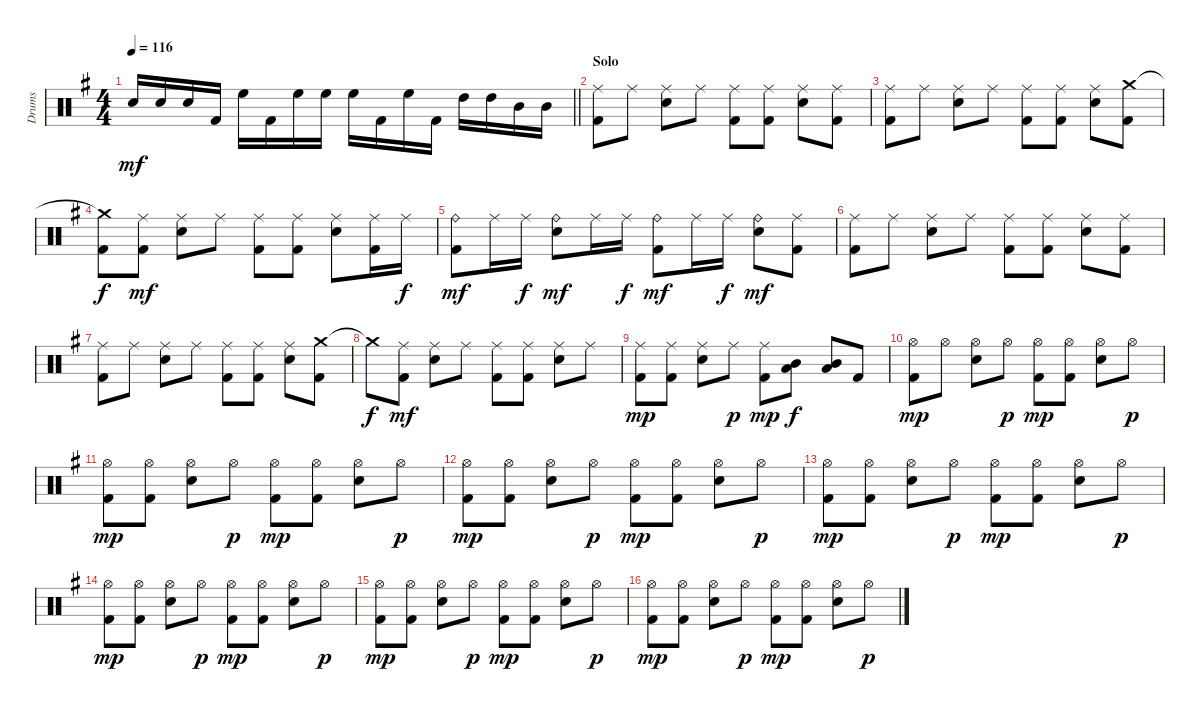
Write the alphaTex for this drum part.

\track ("Drums" "Drums") {instrument percussion}
\staff {score}
\articulation defaults
\ts (4 4)
\tempo 116
\clef neutral
\barLineRight lightlight
\ks g "Electric Snare (hit)".16{dy mf} "Electric Snare (hit)".16 "Electric Snare (hit)".16 "Kick (hit) 2".16 "High Floor Tom (hit)".16 "Kick (hit) 2".16 "High Floor Tom (hit)".16 "High Floor Tom (hit)".16 "High Floor Tom (hit)".16 "Kick (hit) 2".16 "High Floor Tom (hit)".16 "Kick (hit) 2".16 "High Tom (hit)".16 "High Tom (hit)".16 "Mid Tom (hit)".16 "Mid Tom (hit)".16
|
\section ("" "Solo")
("Ride (middle)" "Kick (hit) 2").8 "Ride (middle)".8 ("Ride (middle)" "Electric Snare (hit)").8 "Ride (middle)".8 ("Ride (middle)" "Kick (hit) 2").8 ("Ride (middle)" "Kick (hit) 2").8 ("Ride (middle)" "Electric Snare (hit)").8 ("Ride (middle)" "Kick (hit) 2").8 |
("Ride (middle)" "Kick (hit) 2").8 "Ride (middle)".8 ("Ride (middle)" "Electric Snare (hit)").8 "Ride (middle)".8 ("Ride (middle)" "Kick (hit) 2").8 ("Ride (middle)" "Kick (hit) 2").8 ("Ride (middle)" "Electric Snare (hit)").8 ("Crash medium (hit)" "Kick (hit) 2").8 |
("Crash medium (hit)"{t} "Kick (hit) 2").8{dy f} ("Ride (middle)" "Kick (hit) 2").8{dy mf} ("Ride (middle)" "Electric Snare (hit)").8 "Ride (middle)".8 ("Ride (middle)" "Kick (hit) 2").8 ("Ride (middle)" "Kick (hit) 2").8 ("Ride (middle)" "Electric Snare (hit)").8 ("Ride (middle)" "Kick (hit) 2").16 "Ride (middle)".16{dy f} |
("Ride (bell)" "Kick (hit) 2").8{dy mf} "Ride (middle)".16 "Ride (middle)".16{dy f} ("Ride (bell)" "Electric Snare (hit)").8{dy mf} "Ride (middle)".16 "Ride (middle)".16{dy f} ("Ride (bell)" "Kick (hit) 2").8{dy mf} "Ride (middle)".16 "Ride (middle)".16{dy f} ("Ride (bell)" "Electric Snare (hit)").8{dy mf} ("Ride (middle)" "Kick (hit) 2").8 |
("Ride (middle)" "Kick (hit) 2").8 "Ride (middle)".8 ("Ride (middle)" "Electric Snare (hit)").8 "Ride (middle)".8 ("Ride (middle)" "Kick (hit) 2").8 ("Ride (middle)" "Kick (hit) 2").8 ("Ride (middle)" "Electric Snare (hit)").8 ("Ride (middle)" "Kick (hit) 2").8 |
("Ride (middle)" "Kick (hit) 2").8 "Ride (middle)".8 ("Ride (middle)" "Electric Snare (hit)").8 "Ride (middle)".8 ("Ride (middle)" "Kick (hit) 2").8 ("Ride (middle)" "Kick (hit) 2").8 ("Ride (middle)" "Electric Snare (hit)").8 ("Crash medium (hit)" "Kick (hit) 2").8 |
"Crash medium (hit)"{t}.8{dy f} ("Ride (middle)" "Kick (hit) 2").8{dy mf} ("Ride (middle)" "Electric Snare (hit)").8 "Ride (middle)".8 ("Ride (middle)" "Kick (hit) 2").8 ("Ride (middle)" "Kick (hit) 2").8 ("Ride (middle)" "Electric Snare (hit)").8 "Ride (middle)".8 |
("Ride (middle)" "Kick (hit) 2").8{dy mp} ("Ride (middle)" "Kick (hit) 2").8 ("Ride (middle)" "Electric Snare (hit)").8 "Ride (middle)".8{dy p} ("Ride (middle)" "Kick (hit) 2").8{dy mp} ("Mid Tom (hit)" "Low Tom (hit)").8{dy f} ("Mid Tom (hit)" "Low Tom (hit)").8 "Kick (hit) 2".8 |
("Hi-Hat (open)" "Kick (hit) 2").8{dy mp} "Hi-Hat (open)".8 ("Hi-Hat (open)" "Electric Snare (hit)").8 "Hi-Hat (open)".8{dy p} ("Hi-Hat (open)" "Kick (hit) 2").8{dy mp} ("Hi-Hat (open)" "Kick (hit) 2").8 ("Hi-Hat (open)" "Electric Snare (hit)").8 "Hi-Hat (open)".8{dy p} |
("Hi-Hat (open)" "Kick (hit) 2").8{dy mp} ("Hi-Hat (open)" "Kick (hit) 2").8 ("Hi-Hat (open)" "Electric Snare (hit)").8 "Hi-Hat (open)".8{dy p} ("Hi-Hat (open)" "Kick (hit) 2").8{dy mp} ("Hi-Hat (open)" "Kick (hit) 2").8 ("Hi-Hat (open)" "Electric Snare (hit)").8 "Hi-Hat (open)".8{dy p} |
("Hi-Hat (open)" "Kick (hit) 2").8{dy mp} ("Hi-Hat (open)" "Kick (hit) 2").8 ("Hi-Hat (open)" "Electric Snare (hit)").8 "Hi-Hat (open)".8{dy p} ("Hi-Hat (open)" "Kick (hit) 2").8{dy mp} ("Hi-Hat (open)" "Kick (hit) 2").8 ("Hi-Hat (open)" "Electric Snare (hit)").8 "Hi-Hat (open)".8{dy p} |
("Hi-Hat (open)" "Kick (hit) 2").8{dy mp} ("Hi-Hat (open)" "Kick (hit) 2").8 ("Hi-Hat (open)" "Electric Snare (hit)").8 "Hi-Hat (open)".8{dy p} ("Hi-Hat (open)" "Kick (hit) 2").8{dy mp} ("Hi-Hat (open)" "Kick (hit) 2").8 ("Hi-Hat (open)" "Electric Snare (hit)").8 "Hi-Hat (open)".8{dy p} |
("Hi-Hat (open)" "Kick (hit) 2").8{dy mp} ("Hi-Hat (open)" "Kick (hit) 2").8 ("Hi-Hat (open)" "Electric Snare (hit)").8 "Hi-Hat (open)".8{dy p} ("Hi-Hat (open)" "Kick (hit) 2").8{dy mp} ("Hi-Hat (open)" "Kick (hit) 2").8 ("Hi-Hat (open)" "Electric Snare (hit)").8 "Hi-Hat (open)".8{dy p} |
("Hi-Hat (open)" "Kick (hit) 2").8{dy mp} ("Hi-Hat (open)" "Kick (hit) 2").8 ("Hi-Hat (open)" "Electric Snare (hit)").8 "Hi-Hat (open)".8{dy p} ("Hi-Hat (open)" "Kick (hit) 2").8{dy mp} ("Hi-Hat (open)" "Kick (hit) 2").8 ("Hi-Hat (open)" "Electric Snare (hit)").8 "Hi-Hat (open)".8{dy p} |
("Hi-Hat (open)" "Kick (hit) 2").8{dy mp} ("Hi-Hat (open)" "Kick (hit) 2").8 ("Hi-Hat (open)" "Electric Snare (hit)").8 "Hi-Hat (open)".8{dy p} ("Hi-Hat (open)" "Kick (hit) 2").8{dy mp} ("Hi-Hat (open)" "Kick (hit) 2").8 ("Hi-Hat (open)" "Electric Snare (hit)").8 "Hi-Hat (open)".8{dy p}
